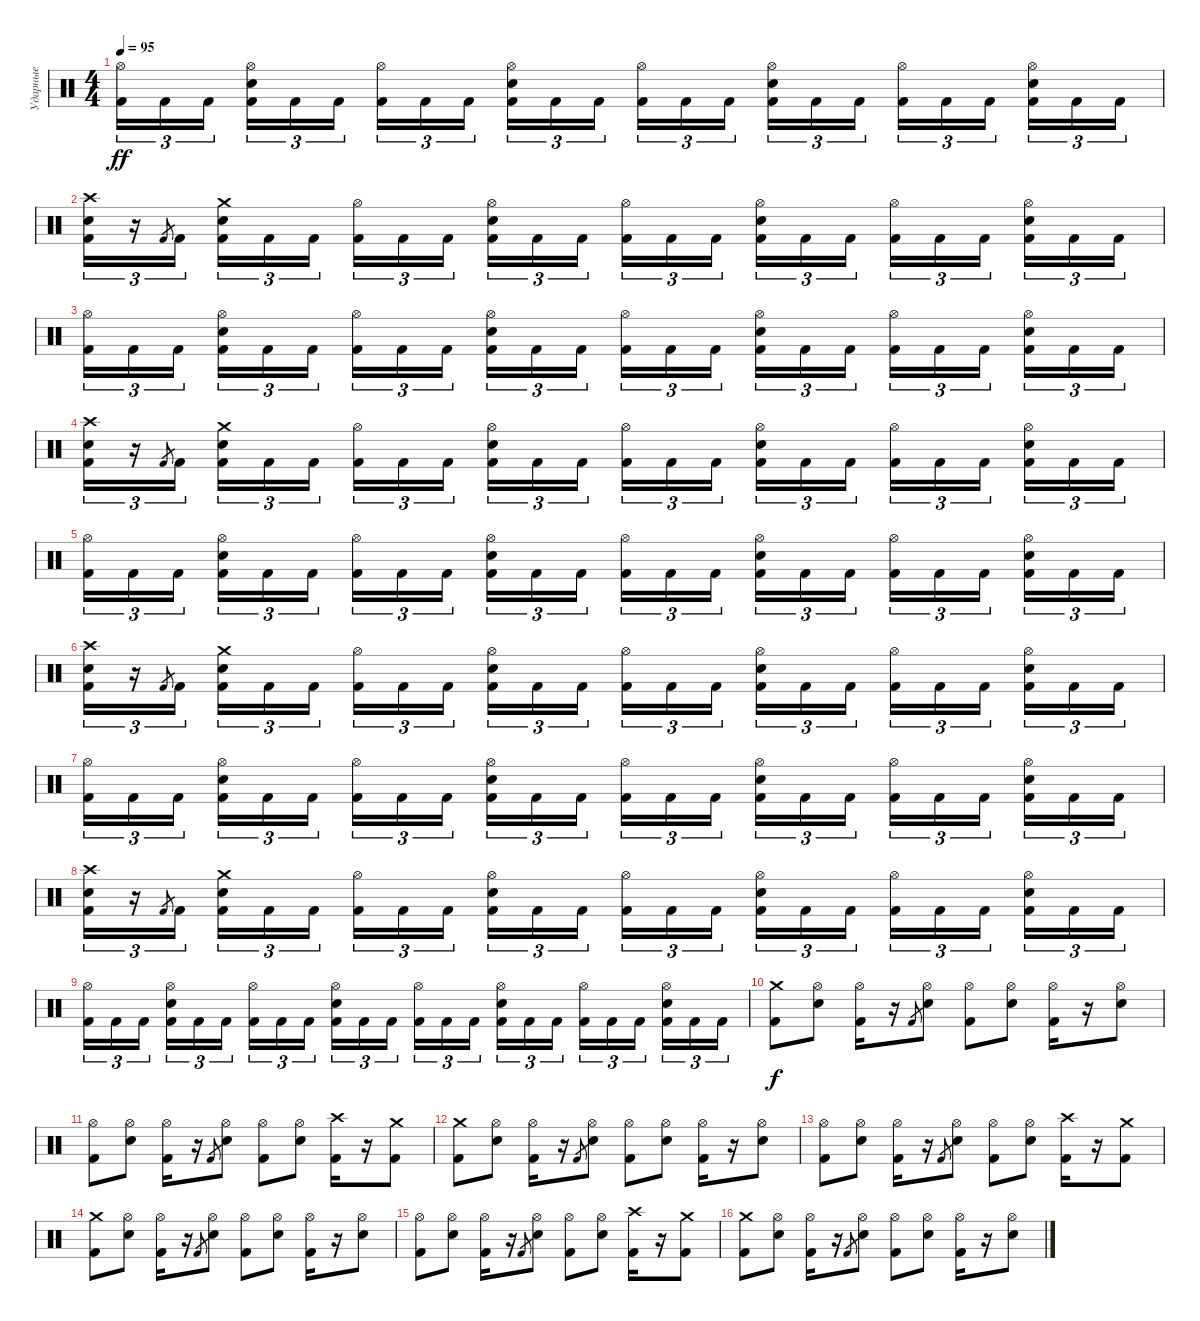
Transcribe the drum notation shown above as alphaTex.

\track ("Ударные" "Ударные") {instrument percussion}
\staff
\articulation defaults
\ts (4 4)
\tempo 95
\clef neutral
\ks c
("Hi-Hat (open)" "Kick (hit) 2").16{tu (3 2) dy ff} "Kick (hit) 2".16{tu (3 2)} "Kick (hit) 2".16{tu (3 2) beam splitsecondary} ("Hi-Hat (open)" "Electric Snare (hit)" "Kick (hit) 2").16{tu (3 2)} "Kick (hit) 2".16{tu (3 2)} "Kick (hit) 2".16{tu (3 2)} ("Hi-Hat (open)" "Kick (hit) 2").16{tu (3 2)} "Kick (hit) 2".16{tu (3 2)} "Kick (hit) 2".16{tu (3 2) beam splitsecondary} ("Hi-Hat (open)" "Electric Snare (hit)" "Kick (hit) 2").16{tu (3 2)} "Kick (hit) 2".16{tu (3 2)} "Kick (hit) 2".16{tu (3 2)} ("Hi-Hat (open)" "Kick (hit) 2").16{tu (3 2)} "Kick (hit) 2".16{tu (3 2)} "Kick (hit) 2".16{tu (3 2) beam splitsecondary} ("Hi-Hat (open)" "Electric Snare (hit)" "Kick (hit) 2").16{tu (3 2)} "Kick (hit) 2".16{tu (3 2)} "Kick (hit) 2".16{tu (3 2)} ("Hi-Hat (open)" "Kick (hit) 2").16{tu (3 2)} "Kick (hit) 2".16{tu (3 2)} "Kick (hit) 2".16{tu (3 2) beam splitsecondary} ("Hi-Hat (open)" "Electric Snare (hit)" "Kick (hit) 2").16{tu (3 2)} "Kick (hit) 2".16{tu (3 2)} "Kick (hit) 2".16{tu (3 2)} |
("Crash high (hit)" "Electric Snare (hit)" "Kick (hit) 2").16{tu (3 2)} r.16{tu (3 2)} "Kick (hit) 2".8{gr} "Kick (hit) 2".16{tu (3 2) beam splitsecondary} ("Crash medium (hit)" "Electric Snare (hit)" "Kick (hit) 2").16{tu (3 2)} "Kick (hit) 2".16{tu (3 2)} "Kick (hit) 2".16{tu (3 2)} ("Hi-Hat (open)" "Kick (hit) 2").16{tu (3 2)} "Kick (hit) 2".16{tu (3 2)} "Kick (hit) 2".16{tu (3 2) beam splitsecondary} ("Hi-Hat (open)" "Electric Snare (hit)" "Kick (hit) 2").16{tu (3 2)} "Kick (hit) 2".16{tu (3 2)} "Kick (hit) 2".16{tu (3 2)} ("Hi-Hat (open)" "Kick (hit) 2").16{tu (3 2)} "Kick (hit) 2".16{tu (3 2)} "Kick (hit) 2".16{tu (3 2) beam splitsecondary} ("Hi-Hat (open)" "Electric Snare (hit)" "Kick (hit) 2").16{tu (3 2)} "Kick (hit) 2".16{tu (3 2)} "Kick (hit) 2".16{tu (3 2)} ("Hi-Hat (open)" "Kick (hit) 2").16{tu (3 2)} "Kick (hit) 2".16{tu (3 2)} "Kick (hit) 2".16{tu (3 2) beam splitsecondary} ("Hi-Hat (open)" "Electric Snare (hit)" "Kick (hit) 2").16{tu (3 2)} "Kick (hit) 2".16{tu (3 2)} "Kick (hit) 2".16{tu (3 2)} |
("Hi-Hat (open)" "Kick (hit) 2").16{tu (3 2)} "Kick (hit) 2".16{tu (3 2)} "Kick (hit) 2".16{tu (3 2) beam splitsecondary} ("Hi-Hat (open)" "Electric Snare (hit)" "Kick (hit) 2").16{tu (3 2)} "Kick (hit) 2".16{tu (3 2)} "Kick (hit) 2".16{tu (3 2)} ("Hi-Hat (open)" "Kick (hit) 2").16{tu (3 2)} "Kick (hit) 2".16{tu (3 2)} "Kick (hit) 2".16{tu (3 2) beam splitsecondary} ("Hi-Hat (open)" "Electric Snare (hit)" "Kick (hit) 2").16{tu (3 2)} "Kick (hit) 2".16{tu (3 2)} "Kick (hit) 2".16{tu (3 2)} ("Hi-Hat (open)" "Kick (hit) 2").16{tu (3 2)} "Kick (hit) 2".16{tu (3 2)} "Kick (hit) 2".16{tu (3 2) beam splitsecondary} ("Hi-Hat (open)" "Electric Snare (hit)" "Kick (hit) 2").16{tu (3 2)} "Kick (hit) 2".16{tu (3 2)} "Kick (hit) 2".16{tu (3 2)} ("Hi-Hat (open)" "Kick (hit) 2").16{tu (3 2)} "Kick (hit) 2".16{tu (3 2)} "Kick (hit) 2".16{tu (3 2) beam splitsecondary} ("Hi-Hat (open)" "Electric Snare (hit)" "Kick (hit) 2").16{tu (3 2)} "Kick (hit) 2".16{tu (3 2)} "Kick (hit) 2".16{tu (3 2)} |
("Crash high (hit)" "Electric Snare (hit)" "Kick (hit) 2").16{tu (3 2)} r.16{tu (3 2)} "Kick (hit) 2".8{gr} "Kick (hit) 2".16{tu (3 2) beam splitsecondary} ("Crash medium (hit)" "Electric Snare (hit)" "Kick (hit) 2").16{tu (3 2)} "Kick (hit) 2".16{tu (3 2)} "Kick (hit) 2".16{tu (3 2)} ("Hi-Hat (open)" "Kick (hit) 2").16{tu (3 2)} "Kick (hit) 2".16{tu (3 2)} "Kick (hit) 2".16{tu (3 2) beam splitsecondary} ("Hi-Hat (open)" "Electric Snare (hit)" "Kick (hit) 2").16{tu (3 2)} "Kick (hit) 2".16{tu (3 2)} "Kick (hit) 2".16{tu (3 2)} ("Hi-Hat (open)" "Kick (hit) 2").16{tu (3 2)} "Kick (hit) 2".16{tu (3 2)} "Kick (hit) 2".16{tu (3 2) beam splitsecondary} ("Hi-Hat (open)" "Electric Snare (hit)" "Kick (hit) 2").16{tu (3 2)} "Kick (hit) 2".16{tu (3 2)} "Kick (hit) 2".16{tu (3 2)} ("Hi-Hat (open)" "Kick (hit) 2").16{tu (3 2)} "Kick (hit) 2".16{tu (3 2)} "Kick (hit) 2".16{tu (3 2) beam splitsecondary} ("Hi-Hat (open)" "Electric Snare (hit)" "Kick (hit) 2").16{tu (3 2)} "Kick (hit) 2".16{tu (3 2)} "Kick (hit) 2".16{tu (3 2)} |
("Hi-Hat (open)" "Kick (hit) 2").16{tu (3 2)} "Kick (hit) 2".16{tu (3 2)} "Kick (hit) 2".16{tu (3 2) beam splitsecondary} ("Hi-Hat (open)" "Electric Snare (hit)" "Kick (hit) 2").16{tu (3 2)} "Kick (hit) 2".16{tu (3 2)} "Kick (hit) 2".16{tu (3 2)} ("Hi-Hat (open)" "Kick (hit) 2").16{tu (3 2)} "Kick (hit) 2".16{tu (3 2)} "Kick (hit) 2".16{tu (3 2) beam splitsecondary} ("Hi-Hat (open)" "Electric Snare (hit)" "Kick (hit) 2").16{tu (3 2)} "Kick (hit) 2".16{tu (3 2)} "Kick (hit) 2".16{tu (3 2)} ("Hi-Hat (open)" "Kick (hit) 2").16{tu (3 2)} "Kick (hit) 2".16{tu (3 2)} "Kick (hit) 2".16{tu (3 2) beam splitsecondary} ("Hi-Hat (open)" "Electric Snare (hit)" "Kick (hit) 2").16{tu (3 2)} "Kick (hit) 2".16{tu (3 2)} "Kick (hit) 2".16{tu (3 2)} ("Hi-Hat (open)" "Kick (hit) 2").16{tu (3 2)} "Kick (hit) 2".16{tu (3 2)} "Kick (hit) 2".16{tu (3 2) beam splitsecondary} ("Hi-Hat (open)" "Electric Snare (hit)" "Kick (hit) 2").16{tu (3 2)} "Kick (hit) 2".16{tu (3 2)} "Kick (hit) 2".16{tu (3 2)} |
("Crash high (hit)" "Electric Snare (hit)" "Kick (hit) 2").16{tu (3 2)} r.16{tu (3 2)} "Kick (hit) 2".8{gr} "Kick (hit) 2".16{tu (3 2) beam splitsecondary} ("Crash medium (hit)" "Electric Snare (hit)" "Kick (hit) 2").16{tu (3 2)} "Kick (hit) 2".16{tu (3 2)} "Kick (hit) 2".16{tu (3 2)} ("Hi-Hat (open)" "Kick (hit) 2").16{tu (3 2)} "Kick (hit) 2".16{tu (3 2)} "Kick (hit) 2".16{tu (3 2) beam splitsecondary} ("Hi-Hat (open)" "Electric Snare (hit)" "Kick (hit) 2").16{tu (3 2)} "Kick (hit) 2".16{tu (3 2)} "Kick (hit) 2".16{tu (3 2)} ("Hi-Hat (open)" "Kick (hit) 2").16{tu (3 2)} "Kick (hit) 2".16{tu (3 2)} "Kick (hit) 2".16{tu (3 2) beam splitsecondary} ("Hi-Hat (open)" "Electric Snare (hit)" "Kick (hit) 2").16{tu (3 2)} "Kick (hit) 2".16{tu (3 2)} "Kick (hit) 2".16{tu (3 2)} ("Hi-Hat (open)" "Kick (hit) 2").16{tu (3 2)} "Kick (hit) 2".16{tu (3 2)} "Kick (hit) 2".16{tu (3 2) beam splitsecondary} ("Hi-Hat (open)" "Electric Snare (hit)" "Kick (hit) 2").16{tu (3 2)} "Kick (hit) 2".16{tu (3 2)} "Kick (hit) 2".16{tu (3 2)} |
("Hi-Hat (open)" "Kick (hit) 2").16{tu (3 2)} "Kick (hit) 2".16{tu (3 2)} "Kick (hit) 2".16{tu (3 2) beam splitsecondary} ("Hi-Hat (open)" "Electric Snare (hit)" "Kick (hit) 2").16{tu (3 2)} "Kick (hit) 2".16{tu (3 2)} "Kick (hit) 2".16{tu (3 2)} ("Hi-Hat (open)" "Kick (hit) 2").16{tu (3 2)} "Kick (hit) 2".16{tu (3 2)} "Kick (hit) 2".16{tu (3 2) beam splitsecondary} ("Hi-Hat (open)" "Electric Snare (hit)" "Kick (hit) 2").16{tu (3 2)} "Kick (hit) 2".16{tu (3 2)} "Kick (hit) 2".16{tu (3 2)} ("Hi-Hat (open)" "Kick (hit) 2").16{tu (3 2)} "Kick (hit) 2".16{tu (3 2)} "Kick (hit) 2".16{tu (3 2) beam splitsecondary} ("Hi-Hat (open)" "Electric Snare (hit)" "Kick (hit) 2").16{tu (3 2)} "Kick (hit) 2".16{tu (3 2)} "Kick (hit) 2".16{tu (3 2)} ("Hi-Hat (open)" "Kick (hit) 2").16{tu (3 2)} "Kick (hit) 2".16{tu (3 2)} "Kick (hit) 2".16{tu (3 2) beam splitsecondary} ("Hi-Hat (open)" "Electric Snare (hit)" "Kick (hit) 2").16{tu (3 2)} "Kick (hit) 2".16{tu (3 2)} "Kick (hit) 2".16{tu (3 2)} |
("Crash high (hit)" "Electric Snare (hit)" "Kick (hit) 2").16{tu (3 2)} r.16{tu (3 2)} "Kick (hit) 2".8{gr} "Kick (hit) 2".16{tu (3 2) beam splitsecondary} ("Crash medium (hit)" "Electric Snare (hit)" "Kick (hit) 2").16{tu (3 2)} "Kick (hit) 2".16{tu (3 2)} "Kick (hit) 2".16{tu (3 2)} ("Hi-Hat (open)" "Kick (hit) 2").16{tu (3 2)} "Kick (hit) 2".16{tu (3 2)} "Kick (hit) 2".16{tu (3 2) beam splitsecondary} ("Hi-Hat (open)" "Electric Snare (hit)" "Kick (hit) 2").16{tu (3 2)} "Kick (hit) 2".16{tu (3 2)} "Kick (hit) 2".16{tu (3 2)} ("Hi-Hat (open)" "Kick (hit) 2").16{tu (3 2)} "Kick (hit) 2".16{tu (3 2)} "Kick (hit) 2".16{tu (3 2) beam splitsecondary} ("Hi-Hat (open)" "Electric Snare (hit)" "Kick (hit) 2").16{tu (3 2)} "Kick (hit) 2".16{tu (3 2)} "Kick (hit) 2".16{tu (3 2)} ("Hi-Hat (open)" "Kick (hit) 2").16{tu (3 2)} "Kick (hit) 2".16{tu (3 2)} "Kick (hit) 2".16{tu (3 2) beam splitsecondary} ("Hi-Hat (open)" "Electric Snare (hit)" "Kick (hit) 2").16{tu (3 2)} "Kick (hit) 2".16{tu (3 2)} "Kick (hit) 2".16{tu (3 2)} |
("Hi-Hat (open)" "Kick (hit) 2").16{tu (3 2)} "Kick (hit) 2".16{tu (3 2)} "Kick (hit) 2".16{tu (3 2) beam splitsecondary} ("Hi-Hat (open)" "Electric Snare (hit)" "Kick (hit) 2").16{tu (3 2)} "Kick (hit) 2".16{tu (3 2)} "Kick (hit) 2".16{tu (3 2)} ("Hi-Hat (open)" "Kick (hit) 2").16{tu (3 2)} "Kick (hit) 2".16{tu (3 2)} "Kick (hit) 2".16{tu (3 2) beam splitsecondary} ("Hi-Hat (open)" "Electric Snare (hit)" "Kick (hit) 2").16{tu (3 2)} "Kick (hit) 2".16{tu (3 2)} "Kick (hit) 2".16{tu (3 2)} ("Hi-Hat (open)" "Kick (hit) 2").16{tu (3 2)} "Kick (hit) 2".16{tu (3 2)} "Kick (hit) 2".16{tu (3 2) beam splitsecondary} ("Hi-Hat (open)" "Electric Snare (hit)" "Kick (hit) 2").16{tu (3 2)} "Kick (hit) 2".16{tu (3 2)} "Kick (hit) 2".16{tu (3 2)} ("Hi-Hat (open)" "Kick (hit) 2").16{tu (3 2)} "Kick (hit) 2".16{tu (3 2)} "Kick (hit) 2".16{tu (3 2) beam splitsecondary} ("Hi-Hat (open)" "Electric Snare (hit)" "Kick (hit) 2").16{tu (3 2)} "Kick (hit) 2".16{tu (3 2)} "Kick (hit) 2".16{tu (3 2)} |
("Crash medium (hit)" "Kick (hit) 2").8{dy f} ("Electric Snare (hit)" "Hi-Hat (open)").8 ("Hi-Hat (open)" "Kick (hit) 2").16 r.16 "Kick (hit) 2".8{gr} ("Electric Snare (hit)" "Hi-Hat (open)").8 ("Hi-Hat (open)" "Kick (hit) 2").8 ("Electric Snare (hit)" "Hi-Hat (open)").8 ("Hi-Hat (open)" "Kick (hit) 2").16 r.16 ("Electric Snare (hit)" "Hi-Hat (open)").8 |
("Hi-Hat (open)" "Kick (hit) 2").8 ("Electric Snare (hit)" "Hi-Hat (open)").8 ("Hi-Hat (open)" "Kick (hit) 2").16 r.16 "Kick (hit) 2".8{gr} ("Electric Snare (hit)" "Hi-Hat (open)").8 ("Hi-Hat (open)" "Kick (hit) 2").8 ("Electric Snare (hit)" "Hi-Hat (open)").8 ("Crash high (hit)" "Kick (hit) 2").16 r.16 ("Crash medium (hit)" "Kick (hit) 2").8 |
("Crash medium (hit)" "Kick (hit) 2").8 ("Electric Snare (hit)" "Hi-Hat (open)").8 ("Hi-Hat (open)" "Kick (hit) 2").16 r.16 "Kick (hit) 2".8{gr} ("Electric Snare (hit)" "Hi-Hat (open)").8 ("Hi-Hat (open)" "Kick (hit) 2").8 ("Electric Snare (hit)" "Hi-Hat (open)").8 ("Hi-Hat (open)" "Kick (hit) 2").16 r.16 ("Electric Snare (hit)" "Hi-Hat (open)").8 |
("Hi-Hat (open)" "Kick (hit) 2").8 ("Electric Snare (hit)" "Hi-Hat (open)").8 ("Hi-Hat (open)" "Kick (hit) 2").16 r.16 "Kick (hit) 2".8{gr} ("Electric Snare (hit)" "Hi-Hat (open)").8 ("Hi-Hat (open)" "Kick (hit) 2").8 ("Electric Snare (hit)" "Hi-Hat (open)").8 ("Crash high (hit)" "Kick (hit) 2").16 r.16 ("Crash medium (hit)" "Kick (hit) 2").8 |
("Crash medium (hit)" "Kick (hit) 2").8 ("Electric Snare (hit)" "Hi-Hat (open)").8 ("Hi-Hat (open)" "Kick (hit) 2").16 r.16 "Kick (hit) 2".8{gr} ("Electric Snare (hit)" "Hi-Hat (open)").8 ("Hi-Hat (open)" "Kick (hit) 2").8 ("Electric Snare (hit)" "Hi-Hat (open)").8 ("Hi-Hat (open)" "Kick (hit) 2").16 r.16 ("Electric Snare (hit)" "Hi-Hat (open)").8 |
("Hi-Hat (open)" "Kick (hit) 2").8 ("Electric Snare (hit)" "Hi-Hat (open)").8 ("Hi-Hat (open)" "Kick (hit) 2").16 r.16 "Kick (hit) 2".8{gr} ("Electric Snare (hit)" "Hi-Hat (open)").8 ("Hi-Hat (open)" "Kick (hit) 2").8 ("Electric Snare (hit)" "Hi-Hat (open)").8 ("Crash high (hit)" "Kick (hit) 2").16 r.16 ("Crash medium (hit)" "Kick (hit) 2").8 |
("Crash medium (hit)" "Kick (hit) 2").8 ("Electric Snare (hit)" "Hi-Hat (open)").8 ("Hi-Hat (open)" "Kick (hit) 2").16 r.16 "Kick (hit) 2".8{gr} ("Electric Snare (hit)" "Hi-Hat (open)").8 ("Hi-Hat (open)" "Kick (hit) 2").8 ("Electric Snare (hit)" "Hi-Hat (open)").8 ("Hi-Hat (open)" "Kick (hit) 2").16 r.16 ("Electric Snare (hit)" "Hi-Hat (open)").8
